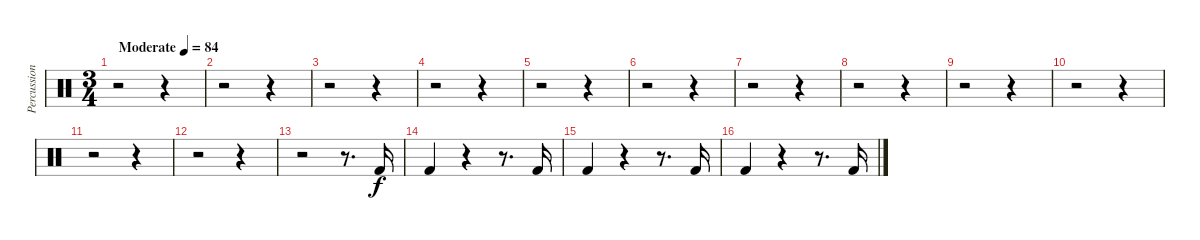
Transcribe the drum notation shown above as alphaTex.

\track ("Percussion" "Percussion") {instrument percussion}
\staff {score}
\articulation defaults
\ts (3 4)
\tempo (84 "Moderate")
\clef neutral
\ks c
r.2{dy f} r.4 |
r.2 r.4 |
r.2 r.4 |
r.2 r.4 |
r.2 r.4 |
r.2 r.4 |
r.2 r.4 |
r.2 r.4 |
r.2 r.4 |
r.2 r.4 |
r.2 r.4 |
r.2 r.4 |
r.2 r.8{d} "Kick (hit) 2".16 |
"Kick (hit) 2".4 r.4 r.8{d} "Kick (hit) 2".16 |
"Kick (hit) 2".4 r.4 r.8{d} "Kick (hit) 2".16 |
"Kick (hit) 2".4 r.4 r.8{d} "Kick (hit) 2".16
